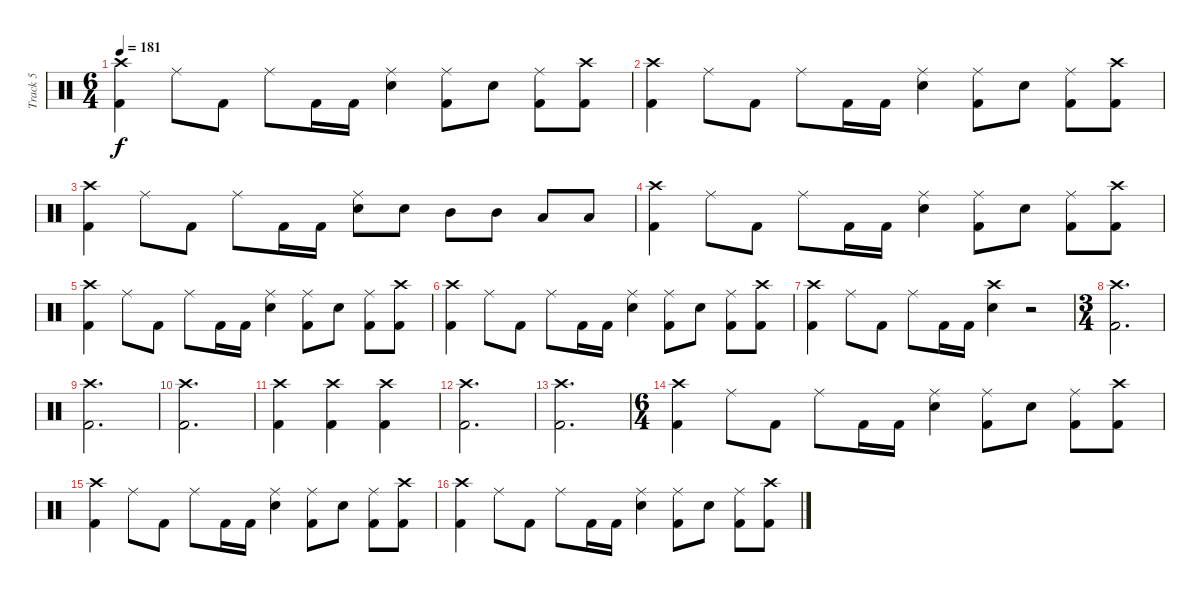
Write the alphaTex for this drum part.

\track ("Track 5" "Track 5") {instrument percussion}
\staff {score}
\articulation defaults
\ts (6 4)
\tempo 181
\clef neutral
\ks c
("Kick (hit) 2" "Crash high (hit)").4{dy f} "Ride (middle)".8 "Kick (hit) 2".8 "Ride (middle)".8 "Kick (hit) 2".16 "Kick (hit) 2".16 ("Electric Snare (hit)" "Ride (middle)").4 ("Ride (middle)" "Kick (hit) 2").8 "Electric Snare (hit)".8 ("Ride (middle)" "Kick (hit) 2").8 ("Kick (hit) 2" "Crash high (hit)").8 |
("Kick (hit) 2" "Crash high (hit)").4 "Ride (middle)".8 "Kick (hit) 2".8 "Ride (middle)".8 "Kick (hit) 2".16 "Kick (hit) 2".16 ("Electric Snare (hit)" "Ride (middle)").4 ("Ride (middle)" "Kick (hit) 2").8 "Electric Snare (hit)".8 ("Ride (middle)" "Kick (hit) 2").8 ("Kick (hit) 2" "Crash high (hit)").8 |
("Kick (hit) 2" "Crash high (hit)").4 "Ride (middle)".8 "Kick (hit) 2".8 "Ride (middle)".8 "Kick (hit) 2".16 "Kick (hit) 2".16 ("Electric Snare (hit)" "Ride (middle)").8 "Electric Snare (hit)".8 "Mid Tom (hit)".8 "Mid Tom (hit)".8 "Low Tom (hit)".8 "Low Tom (hit)".8 |
("Kick (hit) 2" "Crash high (hit)").4 "Ride (middle)".8 "Kick (hit) 2".8 "Ride (middle)".8 "Kick (hit) 2".16 "Kick (hit) 2".16 ("Electric Snare (hit)" "Ride (middle)").4 ("Ride (middle)" "Kick (hit) 2").8 "Electric Snare (hit)".8 ("Ride (middle)" "Kick (hit) 2").8 ("Kick (hit) 2" "Crash high (hit)").8 |
("Kick (hit) 2" "Crash high (hit)").4 "Ride (middle)".8 "Kick (hit) 2".8 "Ride (middle)".8 "Kick (hit) 2".16 "Kick (hit) 2".16 ("Electric Snare (hit)" "Ride (middle)").4 ("Ride (middle)" "Kick (hit) 2").8 "Electric Snare (hit)".8 ("Ride (middle)" "Kick (hit) 2").8 ("Kick (hit) 2" "Crash high (hit)").8 |
("Kick (hit) 2" "Crash high (hit)").4 "Ride (middle)".8 "Kick (hit) 2".8 "Ride (middle)".8 "Kick (hit) 2".16 "Kick (hit) 2".16 ("Electric Snare (hit)" "Ride (middle)").4 ("Ride (middle)" "Kick (hit) 2").8 "Electric Snare (hit)".8 ("Ride (middle)" "Kick (hit) 2").8 ("Kick (hit) 2" "Crash high (hit)").8 |
("Kick (hit) 2" "Crash high (hit)").4 "Ride (middle)".8 "Kick (hit) 2".8 "Ride (middle)".8 "Kick (hit) 2".16 "Kick (hit) 2".16 ("Electric Snare (hit)" "Crash high (hit)").4 r.2 |
\ts (3 4)
("Crash high (hit)" "Kick (hit) 2").2{d} |
("Kick (hit) 2" "Crash high (hit)").2{d} |
("Crash high (hit)" "Kick (hit) 2").2{d} |
("Kick (hit) 2" "Crash high (hit)").4 ("Kick (hit) 2" "Crash high (hit)").4 ("Kick (hit) 2" "Crash high (hit)").4 |
("Kick (hit) 2" "Crash high (hit)").2{d} |
("Kick (hit) 2" "Crash high (hit)").2{d} |
\ts (6 4)
("Kick (hit) 2" "Crash high (hit)").4 "Ride (middle)".8 "Kick (hit) 2".8 "Ride (middle)".8 "Kick (hit) 2".16 "Kick (hit) 2".16 ("Electric Snare (hit)" "Ride (middle)").4 ("Ride (middle)" "Kick (hit) 2").8 "Electric Snare (hit)".8 ("Ride (middle)" "Kick (hit) 2").8 ("Kick (hit) 2" "Crash high (hit)").8 |
("Kick (hit) 2" "Crash high (hit)").4 "Ride (middle)".8 "Kick (hit) 2".8 "Ride (middle)".8 "Kick (hit) 2".16 "Kick (hit) 2".16 ("Electric Snare (hit)" "Ride (middle)").4 ("Ride (middle)" "Kick (hit) 2").8 "Electric Snare (hit)".8 ("Ride (middle)" "Kick (hit) 2").8 ("Kick (hit) 2" "Crash high (hit)").8 |
("Kick (hit) 2" "Crash high (hit)").4 "Ride (middle)".8 "Kick (hit) 2".8 "Ride (middle)".8 "Kick (hit) 2".16 "Kick (hit) 2".16 ("Electric Snare (hit)" "Ride (middle)").4 ("Ride (middle)" "Kick (hit) 2").8 "Electric Snare (hit)".8 ("Ride (middle)" "Kick (hit) 2").8 ("Kick (hit) 2" "Crash high (hit)").8
